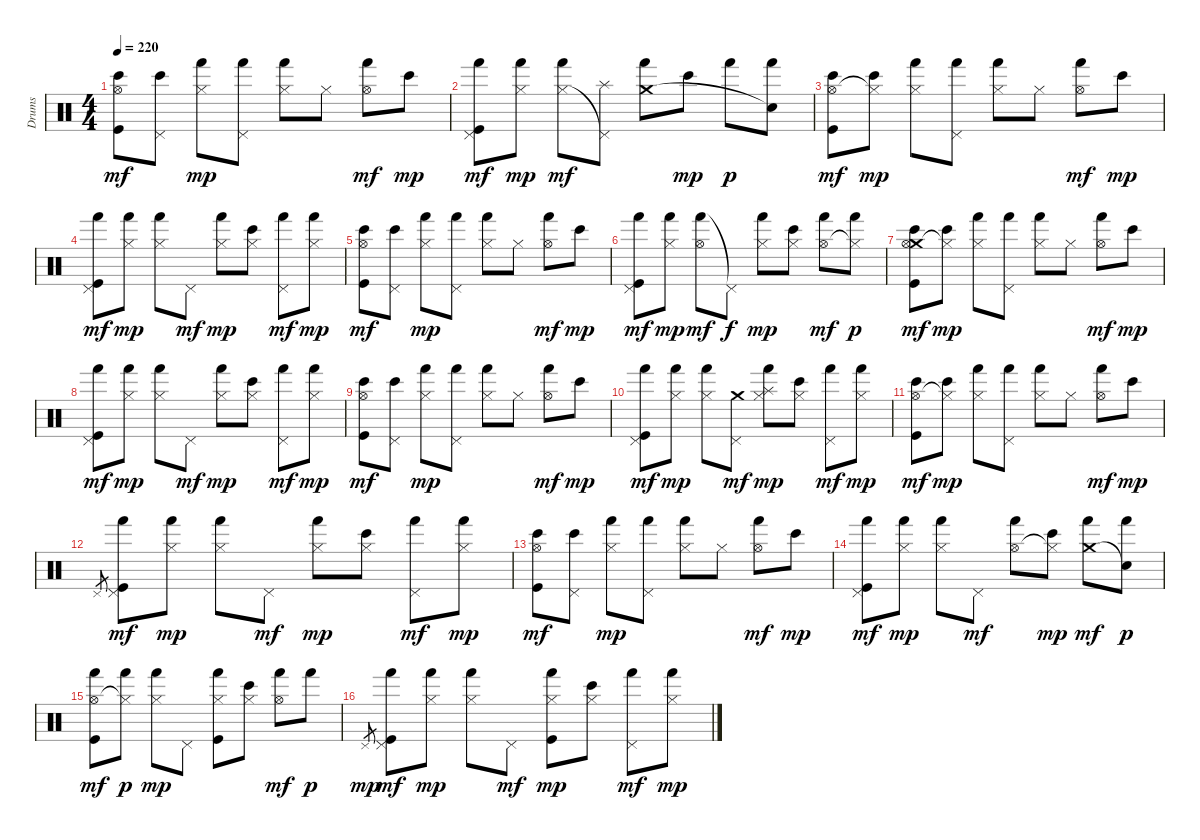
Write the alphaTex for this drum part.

\track ("Drums" "Drums") {instrument percussion}
\staff {score}
\articulation defaults
\ts (4 4)
\tempo 220
\clef neutral
\ks c
("Bongo High (hit)" "Hi-Hat (open)" "Kick (hit)").8{dy mf} ("Bongo High (hit)" "Pedal Hi-Hat (hit)").8 ("Hand (hit)" "Hi-Hat (closed)").8{dy mp} ("Hand (hit)" "Pedal Hi-Hat (hit)").8 ("Hand (hit)" "Hi-Hat (closed)").8 "Hi-Hat (closed)".8 ("Hand (hit)" "Hi-Hat (open)").8{dy mf} "Bongo High (hit)".8{dy mp} |
("Hand (hit)" "Pedal Hi-Hat (hit)" "Kick (hit)").8{dy mf} ("Hand (hit)" "Hi-Hat (closed)").8{dy mp} ("Hand (hit)" "Hi-Hat (closed)").8{dy mf} ("Splash (hit)" "Pedal Hi-Hat (hit)"{t}).8 ("Hand (hit)" "Crash medium (hit)").8 "Bongo High (hit)".8{dy mp} "Hand (hit)".8{dy p} ("Hand (hit)" "Snare (hit)"{t}).8 |
("Bongo High (hit)" "Hi-Hat (open)" "Kick (hit)").8{dy mf} ("Bongo High (hit)" "Hi-Hat (closed)"{t}).8{dy mp} ("Hand (hit)" "Hi-Hat (closed)").8 ("Hand (hit)" "Pedal Hi-Hat (hit)").8 ("Hand (hit)" "Hi-Hat (closed)").8 "Hi-Hat (closed)".8 ("Hand (hit)" "Hi-Hat (open)").8{dy mf} "Bongo High (hit)".8{dy mp} |
("Hand (hit)" "Pedal Hi-Hat (hit)" "Kick (hit)").8{dy mf} ("Hand (hit)" "Hi-Hat (closed)").8{dy mp} ("Hand (hit)" "Hi-Hat (closed)").8 "Pedal Hi-Hat (hit)".8{dy mf} ("Hand (hit)" "Hi-Hat (closed)").8{dy mp} ("Bongo High (hit)" "Hi-Hat (closed)").8 ("Hand (hit)" "Pedal Hi-Hat (hit)").8{dy mf} ("Hand (hit)" "Hi-Hat (closed)").8{dy mp} |
("Bongo High (hit)" "Hi-Hat (open)" "Kick (hit)").8{dy mf} ("Bongo High (hit)" "Pedal Hi-Hat (hit)").8 ("Hand (hit)" "Hi-Hat (closed)").8{dy mp} ("Hand (hit)" "Pedal Hi-Hat (hit)").8 ("Hand (hit)" "Hi-Hat (closed)").8 "Hi-Hat (closed)".8 ("Hand (hit)" "Hi-Hat (open)").8{dy mf} "Bongo High (hit)".8{dy mp} |
("Hand (hit)" "Pedal Hi-Hat (hit)" "Kick (hit)").8{dy mf} ("Hand (hit)" "Hi-Hat (closed)").8{dy mp} ("Hand (hit)" "Hi-Hat (open)").8{dy mf} "Pedal Hi-Hat (hit)"{t}.8{dy f} ("Hand (hit)" "Hi-Hat (closed)").8{dy mp} ("Bongo High (hit)" "Hi-Hat (closed)").8 ("Hand (hit)" "Hi-Hat (open)").8{dy mf} ("Hand (hit)" "Hi-Hat (closed)"{t}).8{dy p} |
("Bongo High (hit)" "Crash medium (hit)" "Hi-Hat (open)" "Kick (hit)").8{dy mf} ("Bongo High (hit)" "Hi-Hat (closed)"{t}).8{dy mp} ("Hand (hit)" "Hi-Hat (closed)").8 ("Hand (hit)" "Pedal Hi-Hat (hit)").8 ("Hand (hit)" "Hi-Hat (closed)").8 "Hi-Hat (closed)".8 ("Hand (hit)" "Hi-Hat (open)").8{dy mf} "Bongo High (hit)".8{dy mp} |
("Hand (hit)" "Pedal Hi-Hat (hit)" "Kick (hit)").8{dy mf} ("Hand (hit)" "Hi-Hat (closed)").8{dy mp} ("Hand (hit)" "Hi-Hat (closed)").8 "Pedal Hi-Hat (hit)".8{dy mf} ("Hand (hit)" "Hi-Hat (closed)").8{dy mp} ("Bongo High (hit)" "Hi-Hat (closed)").8 ("Hand (hit)" "Pedal Hi-Hat (hit)").8{dy mf} ("Hand (hit)" "Hi-Hat (closed)").8{dy mp} |
("Bongo High (hit)" "Hi-Hat (open)" "Kick (hit)").8{dy mf} ("Bongo High (hit)" "Pedal Hi-Hat (hit)").8 ("Hand (hit)" "Hi-Hat (closed)").8{dy mp} ("Hand (hit)" "Pedal Hi-Hat (hit)").8 ("Hand (hit)" "Hi-Hat (closed)").8 "Hi-Hat (closed)".8 ("Hand (hit)" "Hi-Hat (open)").8{dy mf} "Bongo High (hit)".8{dy mp} |
("Hand (hit)" "Pedal Hi-Hat (hit)" "Kick (hit)").8{dy mf} ("Hand (hit)" "Hi-Hat (closed)").8{dy mp} ("Hand (hit)" "Hi-Hat (closed)").8 ("Crash medium (hit)" "Pedal Hi-Hat (hit)").8{dy mf} ("Hand (hit)" "Splash (hit)" "Hi-Hat (closed)").8{dy mp} ("Bongo High (hit)" "Hi-Hat (closed)").8 ("Hand (hit)" "Pedal Hi-Hat (hit)").8{dy mf} ("Hand (hit)" "Hi-Hat (closed)").8{dy mp} |
("Bongo High (hit)" "Hi-Hat (open)" "Kick (hit)").8{dy mf} ("Bongo High (hit)" "Hi-Hat (closed)"{t}).8{dy mp} ("Hand (hit)" "Hi-Hat (closed)").8 ("Hand (hit)" "Pedal Hi-Hat (hit)").8 ("Hand (hit)" "Hi-Hat (closed)").8 "Hi-Hat (closed)".8 ("Hand (hit)" "Hi-Hat (open)").8{dy mf} "Bongo High (hit)".8{dy mp} |
"Pedal Hi-Hat (hit)".8{gr} ("Hand (hit)" "Pedal Hi-Hat (hit)" "Kick (hit)").8{dy mf} ("Hand (hit)" "Hi-Hat (closed)").8{dy mp} ("Hand (hit)" "Hi-Hat (closed)").8 "Pedal Hi-Hat (hit)".8{dy mf} ("Hand (hit)" "Hi-Hat (closed)").8{dy mp} ("Bongo High (hit)" "Hi-Hat (closed)").8 ("Hand (hit)" "Pedal Hi-Hat (hit)").8{dy mf} ("Hand (hit)" "Hi-Hat (closed)").8{dy mp} |
("Bongo High (hit)" "Hi-Hat (open)" "Kick (hit)").8{dy mf} ("Bongo High (hit)" "Pedal Hi-Hat (hit)").8 ("Hand (hit)" "Hi-Hat (closed)").8{dy mp} ("Hand (hit)" "Pedal Hi-Hat (hit)").8 ("Hand (hit)" "Hi-Hat (closed)").8 "Hi-Hat (closed)".8 ("Hand (hit)" "Hi-Hat (open)").8{dy mf} "Bongo High (hit)".8{dy mp} |
("Hand (hit)" "Pedal Hi-Hat (hit)" "Kick (hit)").8{dy mf} ("Hand (hit)" "Hi-Hat (closed)").8{dy mp} ("Hand (hit)" "Hi-Hat (closed)").8 "Pedal Hi-Hat (hit)".8{dy mf} ("Hand (hit)" "Hi-Hat (open)").8 ("Bongo High (hit)" "Hi-Hat (closed)"{t}).8{dy mp} ("Hand (hit)" "Crash medium (hit)").8{dy mf} ("Hand (hit)" "Snare (hit)"{t}).8{dy p} |
("Hand (hit)" "Hi-Hat (open)" "Kick (hit)").8{dy mf} ("Hand (hit)" "Hi-Hat (closed)"{t}).8{dy p} ("Hand (hit)" "Hi-Hat (closed)").8{dy mp} "Pedal Hi-Hat (hit)".8 ("Hand (hit)" "Hi-Hat (closed)" "Kick (hit)").8 ("Bongo High (hit)" "Hi-Hat (closed)").8 ("Hand (hit)" "Hi-Hat (open)").8{dy mf} "Hand (hit)".8{dy p} |
"Pedal Hi-Hat (hit)".8{gr dy mp} ("Hand (hit)" "Pedal Hi-Hat (hit)" "Kick (hit)").8{dy mf} ("Hand (hit)" "Hi-Hat (closed)").8{dy mp} ("Hand (hit)" "Hi-Hat (closed)").8 "Pedal Hi-Hat (hit)".8{dy mf} ("Hand (hit)" "Hi-Hat (closed)" "Kick (hit)").8{dy mp} ("Bongo High (hit)" "Hi-Hat (closed)").8 ("Hand (hit)" "Pedal Hi-Hat (hit)").8{dy mf} ("Hand (hit)" "Hi-Hat (closed)").8{dy mp}
